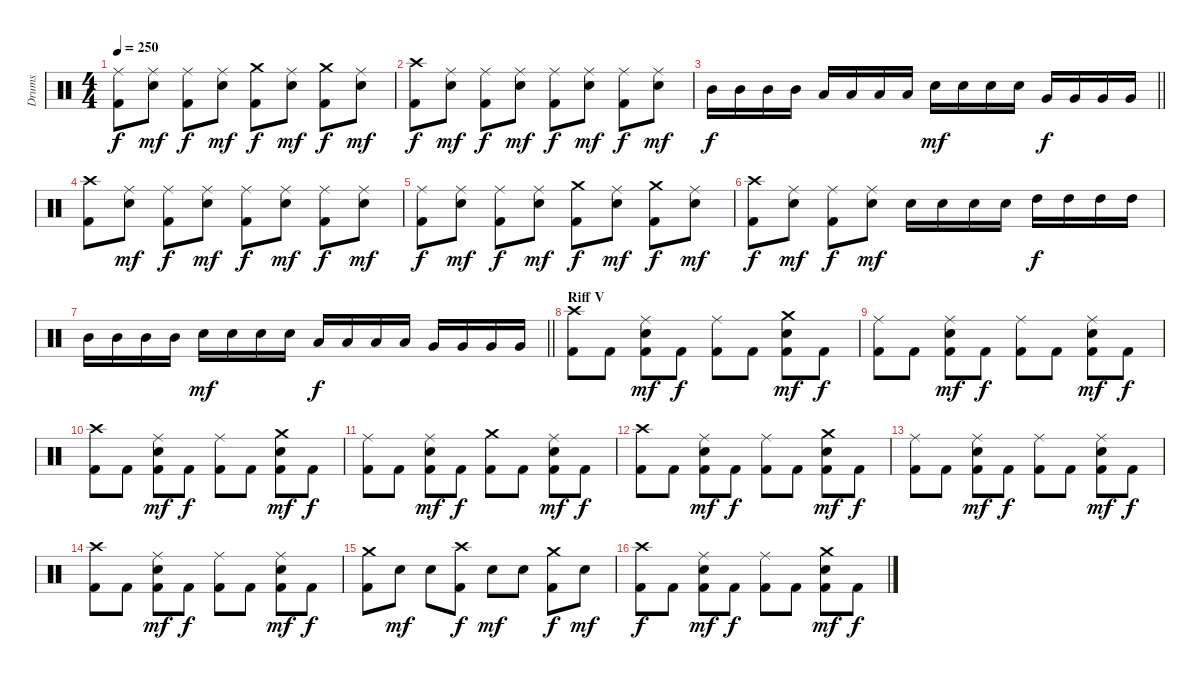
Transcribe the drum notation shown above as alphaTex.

\track ("Drums" "Drums") {instrument percussion}
\staff {score}
\articulation defaults
\ts (4 4)
\tempo 250
\clef neutral
\ks c
("Ride (middle)" "Kick (hit) 2").8{dy f} ("Ride (middle)" "Electric Snare (hit)").8{dy mf} ("Ride (middle)" "Kick (hit) 2").8{dy f} ("Ride (middle)" "Electric Snare (hit)").8{dy mf} ("Crash medium (hit)" "Kick (hit) 2").8{dy f} ("Ride (middle)" "Electric Snare (hit)").8{dy mf} ("Crash medium (hit)" "Kick (hit) 2").8{dy f} ("Ride (middle)" "Electric Snare (hit)").8{dy mf} |
("Crash high (hit)" "Kick (hit) 2").8{dy f} ("Ride (middle)" "Electric Snare (hit)").8{dy mf} ("Ride (middle)" "Kick (hit) 2").8{dy f} ("Ride (middle)" "Electric Snare (hit)").8{dy mf} ("Ride (middle)" "Kick (hit) 2").8{dy f} ("Ride (middle)" "Electric Snare (hit)").8{dy mf} ("Ride (middle)" "Kick (hit) 2").8{dy f} ("Ride (middle)" "Electric Snare (hit)").8{dy mf} |
\barLineRight lightlight "Mid Tom (hit)".16{dy f} "Mid Tom (hit)".16 "Mid Tom (hit)".16 "Mid Tom (hit)".16 "Low Tom (hit)".16 "Low Tom (hit)".16 "Low Tom (hit)".16 "Low Tom (hit)".16 "Electric Snare (hit)".16{dy mf} "Electric Snare (hit)".16 "Electric Snare (hit)".16 "Electric Snare (hit)".16 "Very Low Tom (hit)".16{dy f} "Very Low Tom (hit)".16 "Very Low Tom (hit)".16 "Very Low Tom (hit)".16
|
("Crash high (hit)" "Kick (hit) 2").8 ("Ride (middle)" "Electric Snare (hit)").8{dy mf} ("Ride (middle)" "Kick (hit) 2").8{dy f} ("Ride (middle)" "Electric Snare (hit)").8{dy mf} ("Ride (middle)" "Kick (hit) 2").8{dy f} ("Ride (middle)" "Electric Snare (hit)").8{dy mf} ("Ride (middle)" "Kick (hit) 2").8{dy f} ("Ride (middle)" "Electric Snare (hit)").8{dy mf} |
("Ride (middle)" "Kick (hit) 2").8{dy f} ("Ride (middle)" "Electric Snare (hit)").8{dy mf} ("Ride (middle)" "Kick (hit) 2").8{dy f} ("Ride (middle)" "Electric Snare (hit)").8{dy mf} ("Crash medium (hit)" "Kick (hit) 2").8{dy f} ("Ride (middle)" "Electric Snare (hit)").8{dy mf} ("Crash medium (hit)" "Kick (hit) 2").8{dy f} ("Ride (middle)" "Electric Snare (hit)").8{dy mf} |
("Crash high (hit)" "Kick (hit) 2").8{dy f} ("Ride (middle)" "Electric Snare (hit)").8{dy mf} ("Ride (middle)" "Kick (hit) 2").8{dy f} ("Ride (middle)" "Electric Snare (hit)").8{dy mf} "Electric Snare (hit)".16 "Electric Snare (hit)".16 "Electric Snare (hit)".16 "Electric Snare (hit)".16 "High Tom (hit)".16{dy f} "High Tom (hit)".16 "High Tom (hit)".16 "High Tom (hit)".16 |
\barLineRight lightlight "Mid Tom (hit)".16 "Mid Tom (hit)".16 "Mid Tom (hit)".16 "Mid Tom (hit)".16 "Electric Snare (hit)".16{dy mf} "Electric Snare (hit)".16 "Electric Snare (hit)".16 "Electric Snare (hit)".16 "Low Tom (hit)".16{dy f} "Low Tom (hit)".16 "Low Tom (hit)".16 "Low Tom (hit)".16 "Very Low Tom (hit)".16 "Very Low Tom (hit)".16 "Very Low Tom (hit)".16 "Very Low Tom (hit)".16
|
\section ("" "Riff V")
("Crash high (hit)" "Kick (hit) 2").8 "Kick (hit) 2".8 ("Ride (middle)" "Electric Snare (hit)" "Kick (hit) 2").8{dy mf} "Kick (hit) 2".8{dy f} ("Ride (middle)" "Kick (hit) 2").8 "Kick (hit) 2".8 ("Crash medium (hit)" "Electric Snare (hit)" "Kick (hit) 2").8{dy mf} "Kick (hit) 2".8{dy f} |
("Ride (middle)" "Kick (hit) 2").8 "Kick (hit) 2".8 ("Ride (middle)" "Electric Snare (hit)" "Kick (hit) 2").8{dy mf} "Kick (hit) 2".8{dy f} ("Ride (middle)" "Kick (hit) 2").8 "Kick (hit) 2".8 ("Ride (middle)" "Electric Snare (hit)" "Kick (hit) 2").8{dy mf} "Kick (hit) 2".8{dy f} |
("Crash high (hit)" "Kick (hit) 2").8 "Kick (hit) 2".8 ("Ride (middle)" "Electric Snare (hit)" "Kick (hit) 2").8{dy mf} "Kick (hit) 2".8{dy f} ("Ride (middle)" "Kick (hit) 2").8 "Kick (hit) 2".8 ("Crash medium (hit)" "Electric Snare (hit)" "Kick (hit) 2").8{dy mf} "Kick (hit) 2".8{dy f} |
("Ride (middle)" "Kick (hit) 2").8 "Kick (hit) 2".8 ("Ride (middle)" "Electric Snare (hit)" "Kick (hit) 2").8{dy mf} "Kick (hit) 2".8{dy f} ("Crash medium (hit)" "Kick (hit) 2").8 "Kick (hit) 2".8 ("Ride (middle)" "Electric Snare (hit)" "Kick (hit) 2").8{dy mf} "Kick (hit) 2".8{dy f} |
("Crash high (hit)" "Kick (hit) 2").8 "Kick (hit) 2".8 ("Ride (middle)" "Electric Snare (hit)" "Kick (hit) 2").8{dy mf} "Kick (hit) 2".8{dy f} ("Ride (middle)" "Kick (hit) 2").8 "Kick (hit) 2".8 ("Crash medium (hit)" "Electric Snare (hit)" "Kick (hit) 2").8{dy mf} "Kick (hit) 2".8{dy f} |
("Ride (middle)" "Kick (hit) 2").8 "Kick (hit) 2".8 ("Ride (middle)" "Electric Snare (hit)" "Kick (hit) 2").8{dy mf} "Kick (hit) 2".8{dy f} ("Ride (middle)" "Kick (hit) 2").8 "Kick (hit) 2".8 ("Ride (middle)" "Electric Snare (hit)" "Kick (hit) 2").8{dy mf} "Kick (hit) 2".8{dy f} |
("Crash high (hit)" "Kick (hit) 2").8 "Kick (hit) 2".8 ("Ride (middle)" "Electric Snare (hit)" "Kick (hit) 2").8{dy mf} "Kick (hit) 2".8{dy f} ("Ride (middle)" "Kick (hit) 2").8 "Kick (hit) 2".8 ("Ride (middle)" "Electric Snare (hit)" "Kick (hit) 2").8{dy mf} "Kick (hit) 2".8{dy f} |
("Crash medium (hit)" "Kick (hit) 2").8 "Electric Snare (hit)".8{dy mf} "Electric Snare (hit)".8 ("Crash high (hit)" "Kick (hit) 2").8{dy f} "Electric Snare (hit)".8{dy mf} "Electric Snare (hit)".8 ("Crash medium (hit)" "Kick (hit) 2").8{dy f} "Electric Snare (hit)".8{dy mf} |
("Crash high (hit)" "Kick (hit) 2").8{dy f} "Kick (hit) 2".8 ("Ride (middle)" "Electric Snare (hit)" "Kick (hit) 2").8{dy mf} "Kick (hit) 2".8{dy f} ("Ride (middle)" "Kick (hit) 2").8 "Kick (hit) 2".8 ("Crash medium (hit)" "Electric Snare (hit)" "Kick (hit) 2").8{dy mf} "Kick (hit) 2".8{dy f}
